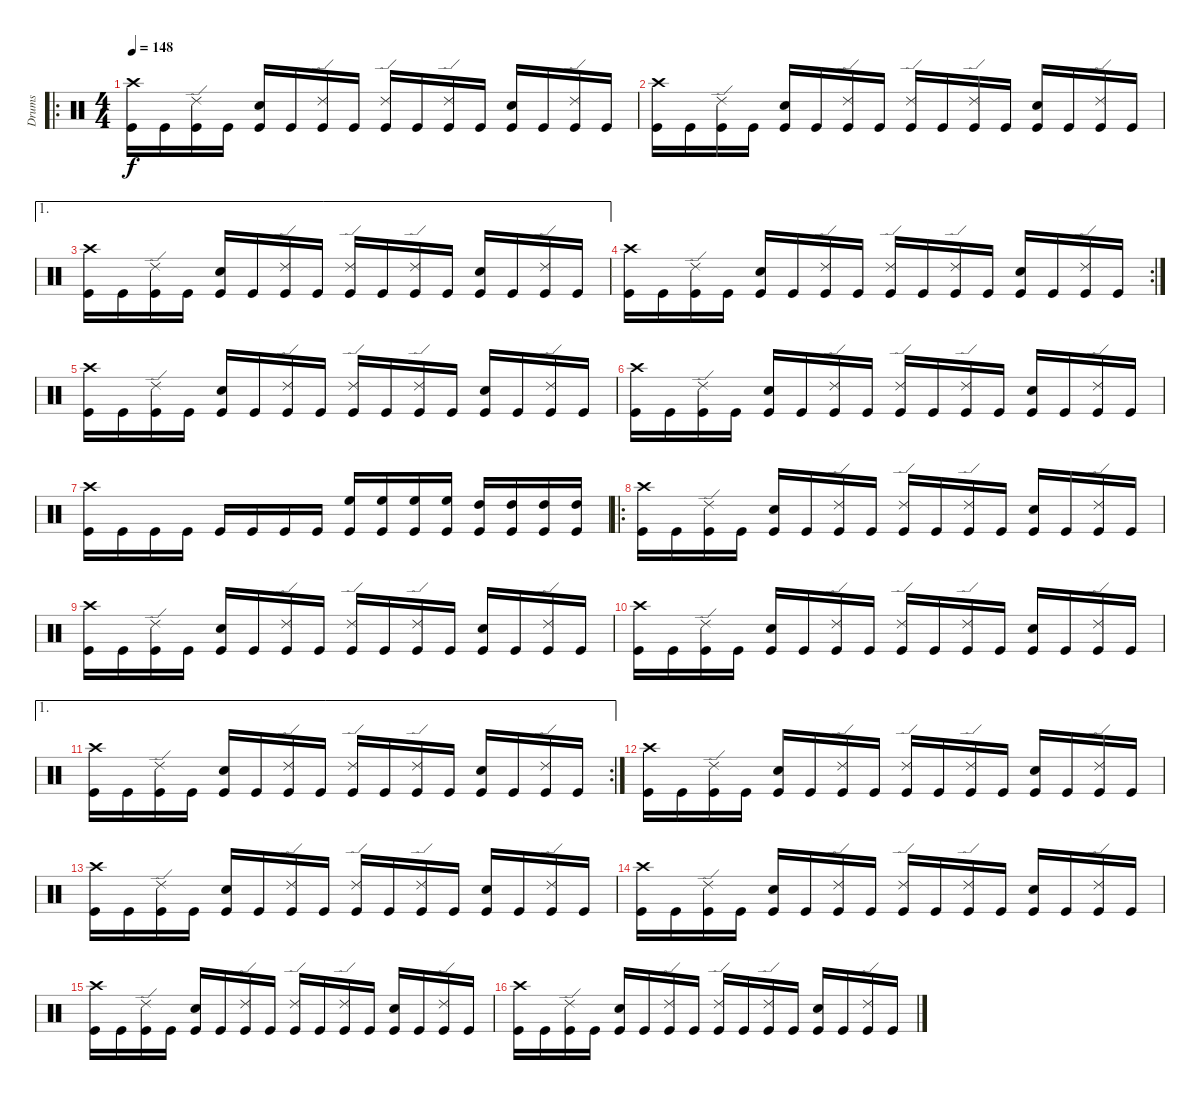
\track ("Drums" "Drums") {instrument percussion}
\staff {score}
\articulation defaults
\ro
\ts (4 4)
\tempo 148
\clef neutral
\ks c
("Crash high (hit)" "Kick (hit)").16{dy f} "Kick (hit)".16 ("Ride (edge) 2" "Kick (hit)").16 "Kick (hit)".16 ("Snare (hit) 2" "Kick (hit)").16 "Kick (hit)".16 ("Ride (edge) 2" "Kick (hit)").16 "Kick (hit)".16 ("Ride (edge) 2" "Kick (hit)").16 "Kick (hit)".16 ("Ride (edge) 2" "Kick (hit)").16 "Kick (hit)".16 ("Snare (hit) 2" "Kick (hit)").16 "Kick (hit)".16 ("Ride (edge) 2" "Kick (hit)").16 "Kick (hit)".16 |
("Crash high (hit)" "Kick (hit)").16 "Kick (hit)".16 ("Ride (edge) 2" "Kick (hit)").16 "Kick (hit)".16 ("Snare (hit) 2" "Kick (hit)").16 "Kick (hit)".16 ("Ride (edge) 2" "Kick (hit)").16 "Kick (hit)".16 ("Ride (edge) 2" "Kick (hit)").16 "Kick (hit)".16 ("Ride (edge) 2" "Kick (hit)").16 "Kick (hit)".16 ("Snare (hit) 2" "Kick (hit)").16 "Kick (hit)".16 ("Ride (edge) 2" "Kick (hit)").16 "Kick (hit)".16 |
\ae 1
("Crash high (hit)" "Kick (hit)").16 "Kick (hit)".16 ("Ride (edge) 2" "Kick (hit)").16 "Kick (hit)".16 ("Snare (hit) 2" "Kick (hit)").16 "Kick (hit)".16 ("Ride (edge) 2" "Kick (hit)").16 "Kick (hit)".16 ("Ride (edge) 2" "Kick (hit)").16 "Kick (hit)".16 ("Ride (edge) 2" "Kick (hit)").16 "Kick (hit)".16 ("Snare (hit) 2" "Kick (hit)").16 "Kick (hit)".16 ("Ride (edge) 2" "Kick (hit)").16 "Kick (hit)".16 |
\rc 2
("Crash high (hit)" "Kick (hit)").16 "Kick (hit)".16 ("Ride (edge) 2" "Kick (hit)").16 "Kick (hit)".16 ("Snare (hit) 2" "Kick (hit)").16 "Kick (hit)".16 ("Ride (edge) 2" "Kick (hit)").16 "Kick (hit)".16 ("Ride (edge) 2" "Kick (hit)").16 "Kick (hit)".16 ("Ride (edge) 2" "Kick (hit)").16 "Kick (hit)".16 ("Snare (hit) 2" "Kick (hit)").16 "Kick (hit)".16 ("Ride (edge) 2" "Kick (hit)").16 "Kick (hit)".16 |
("Crash high (hit)" "Kick (hit)").16 "Kick (hit)".16 ("Ride (edge) 2" "Kick (hit)").16 "Kick (hit)".16 ("Snare (hit) 2" "Kick (hit)").16 "Kick (hit)".16 ("Ride (edge) 2" "Kick (hit)").16 "Kick (hit)".16 ("Ride (edge) 2" "Kick (hit)").16 "Kick (hit)".16 ("Ride (edge) 2" "Kick (hit)").16 "Kick (hit)".16 ("Snare (hit) 2" "Kick (hit)").16 "Kick (hit)".16 ("Ride (edge) 2" "Kick (hit)").16 "Kick (hit)".16 |
("Crash high (hit)" "Kick (hit)").16 "Kick (hit)".16 ("Ride (edge) 2" "Kick (hit)").16 "Kick (hit)".16 ("Snare (hit) 2" "Kick (hit)").16 "Kick (hit)".16 ("Ride (edge) 2" "Kick (hit)").16 "Kick (hit)".16 ("Ride (edge) 2" "Kick (hit)").16 "Kick (hit)".16 ("Ride (edge) 2" "Kick (hit)").16 "Kick (hit)".16 ("Snare (hit) 2" "Kick (hit)").16 "Kick (hit)".16 ("Ride (edge) 2" "Kick (hit)").16 "Kick (hit)".16 |
("Crash high (hit)" "Kick (hit)").16 "Kick (hit)".16 "Kick (hit)".16 "Kick (hit)".16 "Kick (hit)".16 "Kick (hit)".16 "Kick (hit)".16 "Kick (hit)".16 ("High Floor Tom (hit)" "Kick (hit)").16 ("High Floor Tom (hit)" "Kick (hit)").16 ("High Floor Tom (hit)" "Kick (hit)").16 ("High Floor Tom (hit)" "Kick (hit)").16 ("High Tom (hit)" "Kick (hit)").16 ("High Tom (hit)" "Kick (hit)").16 ("High Tom (hit)" "Kick (hit)").16 ("High Tom (hit)" "Kick (hit)").16 |
\ro
("Crash high (hit)" "Kick (hit)").16 "Kick (hit)".16 ("Ride (edge) 2" "Kick (hit)").16 "Kick (hit)".16 ("Snare (hit) 2" "Kick (hit)").16 "Kick (hit)".16 ("Ride (edge) 2" "Kick (hit)").16 "Kick (hit)".16 ("Ride (edge) 2" "Kick (hit)").16 "Kick (hit)".16 ("Ride (edge) 2" "Kick (hit)").16 "Kick (hit)".16 ("Snare (hit) 2" "Kick (hit)").16 "Kick (hit)".16 ("Ride (edge) 2" "Kick (hit)").16 "Kick (hit)".16 |
("Crash high (hit)" "Kick (hit)").16 "Kick (hit)".16 ("Ride (edge) 2" "Kick (hit)").16 "Kick (hit)".16 ("Snare (hit) 2" "Kick (hit)").16 "Kick (hit)".16 ("Ride (edge) 2" "Kick (hit)").16 "Kick (hit)".16 ("Ride (edge) 2" "Kick (hit)").16 "Kick (hit)".16 ("Ride (edge) 2" "Kick (hit)").16 "Kick (hit)".16 ("Snare (hit) 2" "Kick (hit)").16 "Kick (hit)".16 ("Ride (edge) 2" "Kick (hit)").16 "Kick (hit)".16 |
("Crash high (hit)" "Kick (hit)").16 "Kick (hit)".16 ("Ride (edge) 2" "Kick (hit)").16 "Kick (hit)".16 ("Snare (hit) 2" "Kick (hit)").16 "Kick (hit)".16 ("Ride (edge) 2" "Kick (hit)").16 "Kick (hit)".16 ("Ride (edge) 2" "Kick (hit)").16 "Kick (hit)".16 ("Ride (edge) 2" "Kick (hit)").16 "Kick (hit)".16 ("Snare (hit) 2" "Kick (hit)").16 "Kick (hit)".16 ("Ride (edge) 2" "Kick (hit)").16 "Kick (hit)".16 |
\ae 1
\rc 2
("Crash high (hit)" "Kick (hit)").16 "Kick (hit)".16 ("Ride (edge) 2" "Kick (hit)").16 "Kick (hit)".16 ("Snare (hit) 2" "Kick (hit)").16 "Kick (hit)".16 ("Ride (edge) 2" "Kick (hit)").16 "Kick (hit)".16 ("Ride (edge) 2" "Kick (hit)").16 "Kick (hit)".16 ("Ride (edge) 2" "Kick (hit)").16 "Kick (hit)".16 ("Snare (hit) 2" "Kick (hit)").16 "Kick (hit)".16 ("Ride (edge) 2" "Kick (hit)").16 "Kick (hit)".16 |
("Crash high (hit)" "Kick (hit)").16 "Kick (hit)".16 ("Ride (edge) 2" "Kick (hit)").16 "Kick (hit)".16 ("Snare (hit) 2" "Kick (hit)").16 "Kick (hit)".16 ("Ride (edge) 2" "Kick (hit)").16 "Kick (hit)".16 ("Ride (edge) 2" "Kick (hit)").16 "Kick (hit)".16 ("Ride (edge) 2" "Kick (hit)").16 "Kick (hit)".16 ("Snare (hit) 2" "Kick (hit)").16 "Kick (hit)".16 ("Ride (edge) 2" "Kick (hit)").16 "Kick (hit)".16 |
("Crash high (hit)" "Kick (hit)").16 "Kick (hit)".16 ("Ride (edge) 2" "Kick (hit)").16 "Kick (hit)".16 ("Snare (hit) 2" "Kick (hit)").16 "Kick (hit)".16 ("Ride (edge) 2" "Kick (hit)").16 "Kick (hit)".16 ("Ride (edge) 2" "Kick (hit)").16 "Kick (hit)".16 ("Ride (edge) 2" "Kick (hit)").16 "Kick (hit)".16 ("Snare (hit) 2" "Kick (hit)").16 "Kick (hit)".16 ("Ride (edge) 2" "Kick (hit)").16 "Kick (hit)".16 |
("Crash high (hit)" "Kick (hit)").16 "Kick (hit)".16 ("Ride (edge) 2" "Kick (hit)").16 "Kick (hit)".16 ("Snare (hit) 2" "Kick (hit)").16 "Kick (hit)".16 ("Ride (edge) 2" "Kick (hit)").16 "Kick (hit)".16 ("Ride (edge) 2" "Kick (hit)").16 "Kick (hit)".16 ("Ride (edge) 2" "Kick (hit)").16 "Kick (hit)".16 ("Snare (hit) 2" "Kick (hit)").16 "Kick (hit)".16 ("Ride (edge) 2" "Kick (hit)").16 "Kick (hit)".16 |
("Crash high (hit)" "Kick (hit)").16 "Kick (hit)".16 ("Ride (edge) 2" "Kick (hit)").16 "Kick (hit)".16 ("Snare (hit) 2" "Kick (hit)").16 "Kick (hit)".16 ("Ride (edge) 2" "Kick (hit)").16 "Kick (hit)".16 ("Ride (edge) 2" "Kick (hit)").16 "Kick (hit)".16 ("Ride (edge) 2" "Kick (hit)").16 "Kick (hit)".16 ("Snare (hit) 2" "Kick (hit)").16 "Kick (hit)".16 ("Ride (edge) 2" "Kick (hit)").16 "Kick (hit)".16 |
("Crash high (hit)" "Kick (hit)").16 "Kick (hit)".16 ("Ride (edge) 2" "Kick (hit)").16 "Kick (hit)".16 ("Snare (hit) 2" "Kick (hit)").16 "Kick (hit)".16 ("Ride (edge) 2" "Kick (hit)").16 "Kick (hit)".16 ("Ride (edge) 2" "Kick (hit)").16 "Kick (hit)".16 ("Ride (edge) 2" "Kick (hit)").16 "Kick (hit)".16 ("Snare (hit) 2" "Kick (hit)").16 "Kick (hit)".16 ("Ride (edge) 2" "Kick (hit)").16 "Kick (hit)".16
